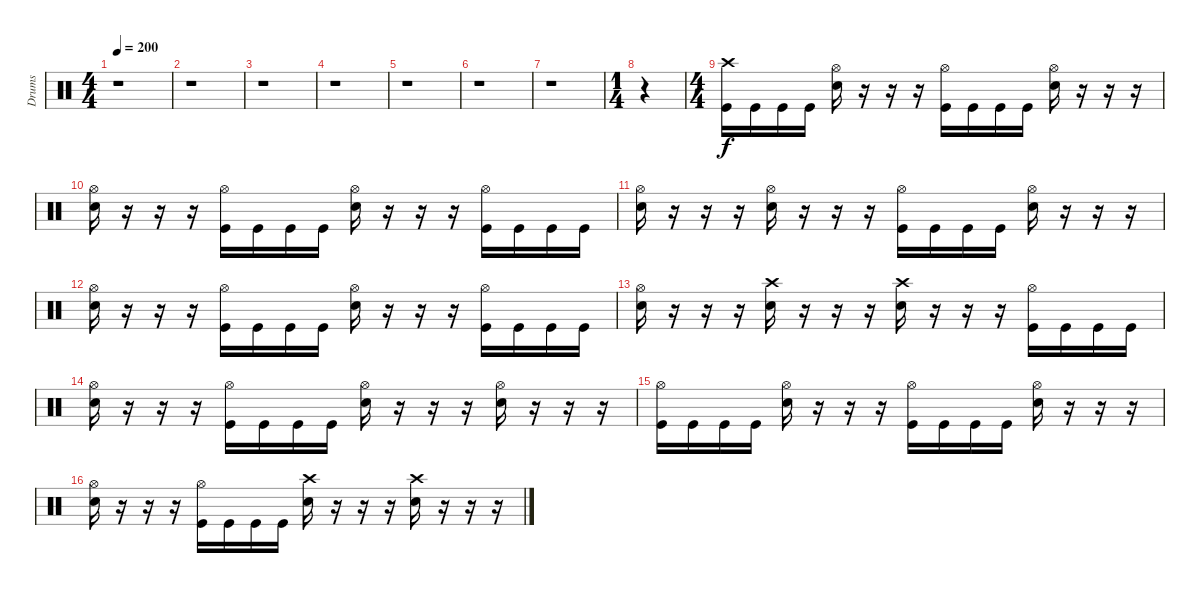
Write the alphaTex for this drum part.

\track ("Drums" "Drums") {instrument percussion}
\staff {score}
\articulation defaults
\ts (4 4)
\tempo 200
\clef neutral
\ks c
r.1{dy f} |
r.1 |
r.1 |
r.1 |
r.1 |
r.1 |
r.1 |
\ts (1 4)
r.4 |
\ts (4 4)
("Crash high (hit)" "Kick (hit)").16 "Kick (hit)".16 "Kick (hit)".16 "Kick (hit)".16 ("Hi-Hat (open)" "Snare (hit) 2").16 r.16 r.16 r.16 ("Hi-Hat (open)" "Kick (hit)").16 "Kick (hit)".16 "Kick (hit)".16 "Kick (hit)".16 ("Hi-Hat (open)" "Snare (hit) 2").16 r.16 r.16 r.16 |
("Hi-Hat (open)" "Snare (hit) 2").16 r.16 r.16 r.16 ("Hi-Hat (open)" "Kick (hit)").16 "Kick (hit)".16 "Kick (hit)".16 "Kick (hit)".16 ("Hi-Hat (open)" "Snare (hit) 2").16 r.16 r.16 r.16 ("Hi-Hat (open)" "Kick (hit)").16 "Kick (hit)".16 "Kick (hit)".16 "Kick (hit)".16 |
("Hi-Hat (open)" "Snare (hit) 2").16 r.16 r.16 r.16 ("Hi-Hat (open)" "Snare (hit) 2").16 r.16 r.16 r.16 ("Hi-Hat (open)" "Kick (hit)").16 "Kick (hit)".16 "Kick (hit)".16 "Kick (hit)".16 ("Hi-Hat (open)" "Snare (hit) 2").16 r.16 r.16 r.16 |
("Hi-Hat (open)" "Snare (hit) 2").16 r.16 r.16 r.16 ("Hi-Hat (open)" "Kick (hit)").16 "Kick (hit)".16 "Kick (hit)".16 "Kick (hit)".16 ("Hi-Hat (open)" "Snare (hit) 2").16 r.16 r.16 r.16 ("Hi-Hat (open)" "Kick (hit)").16 "Kick (hit)".16 "Kick (hit)".16 "Kick (hit)".16 |
("Hi-Hat (open)" "Snare (hit) 2").16 r.16 r.16 r.16 ("Crash high (hit)" "Snare (hit) 2").16 r.16 r.16 r.16 ("Crash high (hit)" "Snare (hit) 2").16 r.16 r.16 r.16 ("Hi-Hat (open)" "Kick (hit)").16 "Kick (hit)".16 "Kick (hit)".16 "Kick (hit)".16 |
("Hi-Hat (open)" "Snare (hit) 2").16 r.16 r.16 r.16 ("Hi-Hat (open)" "Kick (hit)").16 "Kick (hit)".16 "Kick (hit)".16 "Kick (hit)".16 ("Hi-Hat (open)" "Snare (hit) 2").16 r.16 r.16 r.16 ("Hi-Hat (open)" "Snare (hit) 2").16 r.16 r.16 r.16 |
("Hi-Hat (open)" "Kick (hit)").16 "Kick (hit)".16 "Kick (hit)".16 "Kick (hit)".16 ("Hi-Hat (open)" "Snare (hit) 2").16 r.16 r.16 r.16 ("Hi-Hat (open)" "Kick (hit)").16 "Kick (hit)".16 "Kick (hit)".16 "Kick (hit)".16 ("Hi-Hat (open)" "Snare (hit) 2").16 r.16 r.16 r.16 |
("Hi-Hat (open)" "Snare (hit) 2").16 r.16 r.16 r.16 ("Hi-Hat (open)" "Kick (hit)").16 "Kick (hit)".16 "Kick (hit)".16 "Kick (hit)".16 ("Crash high (hit)" "Snare (hit) 2").16 r.16 r.16 r.16 ("Crash high (hit)" "Snare (hit) 2").16 r.16 r.16 r.16
